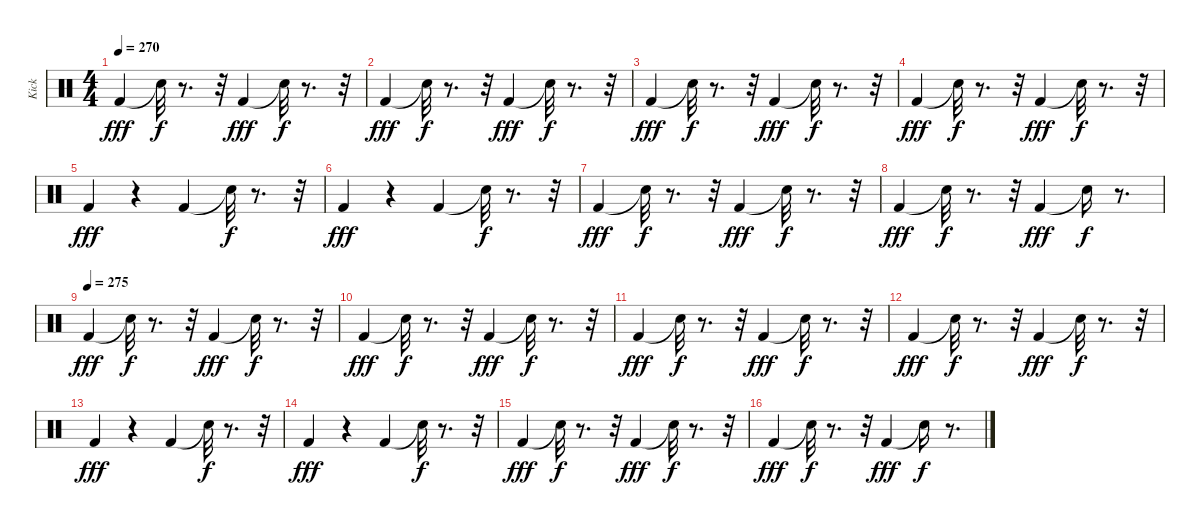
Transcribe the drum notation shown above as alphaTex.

\track ("Kick" "Kick") {instrument percussion}
\staff {score}
\articulation defaults
\ts (4 4)
\tempo 270
\clef neutral
\ks c "Kick (hit) 2".4{dy fff} "Snare (hit)"{t}.32{dy f}
r.8{d} r.32 "Kick (hit) 2".4{dy fff} "Snare (hit)"{t}.32{dy f} r.8{d} r.32 |
"Kick (hit) 2".4{dy fff} "Snare (hit)"{t}.32{dy f} r.8{d} r.32 "Kick (hit) 2".4{dy fff} "Snare (hit)"{t}.32{dy f} r.8{d} r.32 |
"Kick (hit) 2".4{dy fff} "Snare (hit)"{t}.32{dy f} r.8{d} r.32 "Kick (hit) 2".4{dy fff} "Snare (hit)"{t}.32{dy f} r.8{d} r.32 |
"Kick (hit) 2".4{dy fff} "Snare (hit)"{t}.32{dy f} r.8{d} r.32 "Kick (hit) 2".4{dy fff} "Snare (hit)"{t}.32{dy f} r.8{d} r.32 |
"Kick (hit) 2".4{dy fff} r.4 "Kick (hit) 2".4 "Snare (hit)"{t}.32{dy f} r.8{d} r.32 |
"Kick (hit) 2".4{dy fff} r.4 "Kick (hit) 2".4 "Snare (hit)"{t}.32{dy f} r.8{d} r.32 |
"Kick (hit) 2".4{dy fff} "Snare (hit)"{t}.32{dy f} r.8{d} r.32 "Kick (hit) 2".4{dy fff} "Snare (hit)"{t}.32{dy f} r.8{d} r.32 |
"Kick (hit) 2".4{dy fff} "Snare (hit)"{t}.32{dy f} r.8{d} r.32 "Kick (hit) 2".4{dy fff} "Snare (hit)"{t}.16{dy f} r.8{d} |
\tempo (275)
"Kick (hit) 2".4{dy fff} "Snare (hit)"{t}.32{dy f} r.8{d} r.32 "Kick (hit) 2".4{dy fff} "Snare (hit)"{t}.32{dy f} r.8{d} r.32 |
"Kick (hit) 2".4{dy fff} "Snare (hit)"{t}.32{dy f} r.8{d} r.32 "Kick (hit) 2".4{dy fff} "Snare (hit)"{t}.32{dy f} r.8{d} r.32 |
"Kick (hit) 2".4{dy fff} "Snare (hit)"{t}.32{dy f} r.8{d} r.32 "Kick (hit) 2".4{dy fff} "Snare (hit)"{t}.32{dy f} r.8{d} r.32 |
"Kick (hit) 2".4{dy fff} "Snare (hit)"{t}.32{dy f} r.8{d} r.32 "Kick (hit) 2".4{dy fff} "Snare (hit)"{t}.32{dy f} r.8{d} r.32 |
"Kick (hit) 2".4{dy fff} r.4 "Kick (hit) 2".4 "Snare (hit)"{t}.32{dy f} r.8{d} r.32 |
"Kick (hit) 2".4{dy fff} r.4 "Kick (hit) 2".4 "Snare (hit)"{t}.32{dy f} r.8{d} r.32 |
"Kick (hit) 2".4{dy fff} "Snare (hit)"{t}.32{dy f} r.8{d} r.32 "Kick (hit) 2".4{dy fff} "Snare (hit)"{t}.32{dy f} r.8{d} r.32 |
"Kick (hit) 2".4{dy fff} "Snare (hit)"{t}.32{dy f} r.8{d} r.32 "Kick (hit) 2".4{dy fff} "Snare (hit)"{t}.16{dy f} r.8{d}
